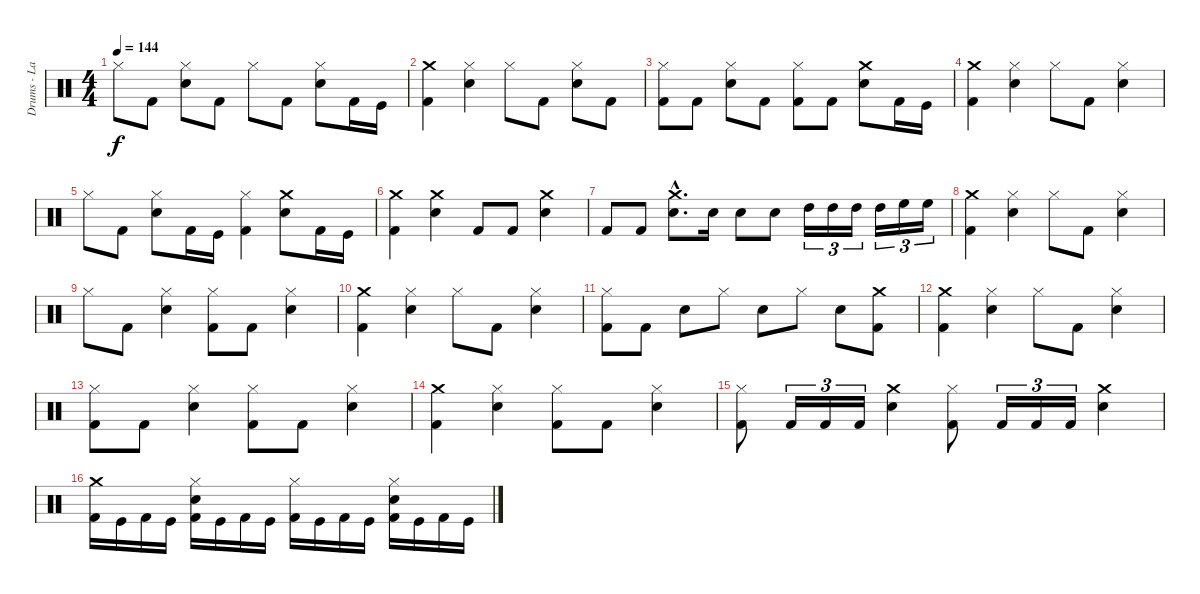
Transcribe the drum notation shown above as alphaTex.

\track ("Drums - Lars" "Drums - La") {instrument percussion}
\staff {score}
\articulation defaults
\ts (4 4)
\tempo 144
\clef neutral
\ks c "Hi-Hat (closed)".8{dy f} "Kick (hit) 2".8
("Snare (hit) 2" "Hi-Hat (closed)").8 "Kick (hit) 2".8 "Hi-Hat (closed)".8 "Kick (hit) 2".8 ("Snare (hit) 2" "Hi-Hat (closed)").8 "Kick (hit) 2".16 "Kick (hit)".16 |
("Kick (hit) 2" "Crash medium (hit)").4 ("Snare (hit) 2" "Hi-Hat (closed)").4 "Hi-Hat (closed)".8 "Kick (hit) 2".8 ("Hi-Hat (closed)" "Snare (hit) 2").8 "Kick (hit) 2".8 |
("Kick (hit) 2" "Hi-Hat (closed)").8 "Kick (hit) 2".8 ("Snare (hit) 2" "Hi-Hat (closed)").8 "Kick (hit) 2".8 ("Kick (hit) 2" "Hi-Hat (closed)").8 "Kick (hit) 2".8 ("Crash medium (hit)" "Snare (hit) 2").8 "Kick (hit) 2".16 "Kick (hit)".16 |
("Kick (hit) 2" "Crash medium (hit)").4 ("Snare (hit) 2" "Hi-Hat (closed)").4 "Hi-Hat (closed)".8 "Kick (hit) 2".8 ("Snare (hit) 2" "Hi-Hat (closed)").4 |
"Hi-Hat (closed)".8 "Kick (hit) 2".8 ("Snare (hit) 2" "Hi-Hat (closed)").8 "Kick (hit) 2".16 "Kick (hit)".16 ("Kick (hit) 2" "Hi-Hat (closed)").4 ("Crash medium (hit)" "Snare (hit) 2").8 "Kick (hit) 2".16 "Kick (hit)".16 |
("Kick (hit) 2" "Crash medium (hit)").4 ("Snare (hit) 2" "Crash medium (hit)").4 "Kick (hit) 2".8 "Kick (hit) 2".8 ("Crash medium (hit)" "Snare (hit) 2").4 |
"Kick (hit) 2".8 "Kick (hit) 2".8 ("Crash medium (hit)"{hac} "Snare (hit) 2"{hac}).8{d} "Snare (hit) 2".16 "Snare (hit) 2".8 "Snare (hit) 2".8 "High Tom (hit)".16{tu (3 2)} "High Tom (hit)".16{tu (3 2)} "High Tom (hit)".16{tu (3 2)} "High Tom (hit)".16{tu (3 2)} "High Floor Tom (hit)".16{tu (3 2)} "High Floor Tom (hit)".16{tu (3 2)} |
("Kick (hit) 2" "Crash medium (hit)").4 ("Snare (hit) 2" "Hi-Hat (closed)").4 "Hi-Hat (closed)".8 "Kick (hit) 2".8 ("Snare (hit) 2" "Hi-Hat (closed)").4 |
"Hi-Hat (closed)".8 "Kick (hit) 2".8 ("Snare (hit) 2" "Hi-Hat (closed)").4 ("Kick (hit) 2" "Hi-Hat (closed)").8 "Kick (hit) 2".8 ("Snare (hit) 2" "Hi-Hat (closed)").4 |
("Kick (hit) 2" "Crash medium (hit)").4 ("Snare (hit) 2" "Hi-Hat (closed)").4 "Hi-Hat (closed)".8 "Kick (hit) 2".8 ("Snare (hit) 2" "Hi-Hat (closed)").4 |
("Kick (hit) 2" "Hi-Hat (closed)").8 "Kick (hit) 2".8 "Snare (hit) 2".8 "Hi-Hat (closed)".8 "Snare (hit) 2".8 "Hi-Hat (closed)".8 "Snare (hit) 2".8 ("Kick (hit) 2" "Crash medium (hit)").8 |
("Kick (hit) 2" "Crash medium (hit)").4 ("Snare (hit) 2" "Hi-Hat (closed)").4 "Hi-Hat (closed)".8 "Kick (hit) 2".8 ("Snare (hit) 2" "Hi-Hat (closed)").4 |
("Hi-Hat (closed)" "Kick (hit) 2").8 "Kick (hit) 2".8 ("Snare (hit) 2" "Hi-Hat (closed)").4 ("Hi-Hat (closed)" "Kick (hit) 2").8 "Kick (hit) 2".8 ("Snare (hit) 2" "Hi-Hat (closed)").4 |
("Kick (hit) 2" "Crash medium (hit)").4 ("Snare (hit) 2" "Hi-Hat (closed)").4 ("Hi-Hat (closed)" "Kick (hit) 2").8 "Kick (hit) 2".8 ("Snare (hit) 2" "Hi-Hat (closed)").4 |
("Kick (hit) 2" "Hi-Hat (closed)").8 "Kick (hit) 2".16{tu (3 2)} "Kick (hit) 2".16{tu (3 2)} "Kick (hit) 2".16{tu (3 2)} ("Crash medium (hit)" "Snare (hit) 2").4 ("Kick (hit) 2" "Hi-Hat (closed)").8 "Kick (hit) 2".16{tu (3 2)} "Kick (hit) 2".16{tu (3 2)} "Kick (hit) 2".16{tu (3 2)} ("Snare (hit) 2" "Crash medium (hit)").4 |
("Crash medium (hit)" "Kick (hit) 2").16 "Kick (hit)".16 "Kick (hit) 2".16 "Kick (hit)".16 ("Snare (hit) 2" "Hi-Hat (closed)" "Kick (hit) 2").16 "Kick (hit)".16 "Kick (hit) 2".16 "Kick (hit)".16 ("Hi-Hat (closed)" "Kick (hit) 2").16 "Kick (hit)".16 "Kick (hit) 2".16 "Kick (hit)".16 ("Snare (hit) 2" "Hi-Hat (closed)" "Kick (hit) 2").16 "Kick (hit)".16 "Kick (hit) 2".16 "Kick (hit)".16
